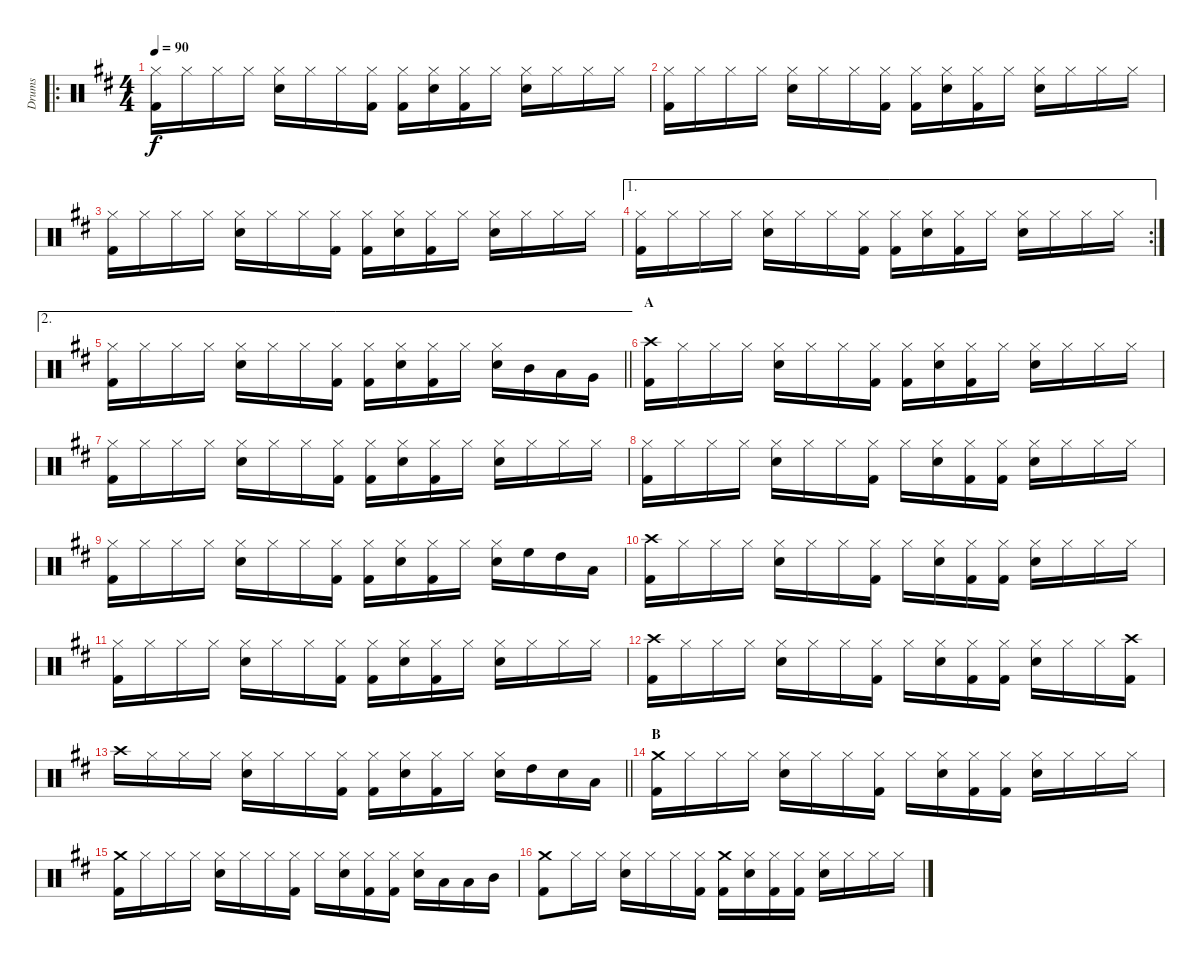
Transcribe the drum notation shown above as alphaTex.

\track ("Drums" "Drums") {instrument percussion}
\staff {score}
\articulation defaults
\ro
\ts (4 4)
\tempo 90
\clef neutral
\ks d
("Hi-Hat (closed)" "Kick (hit) 2").16{dy f} "Hi-Hat (closed)".16 "Hi-Hat (closed)".16 "Hi-Hat (closed)".16 ("Hi-Hat (closed)" "Snare (hit) 2").16 "Hi-Hat (closed)".16 "Hi-Hat (closed)".16 ("Hi-Hat (closed)" "Kick (hit) 2").16 ("Hi-Hat (closed)" "Kick (hit) 2").16 ("Hi-Hat (closed)" "Snare (hit) 2").16 ("Hi-Hat (closed)" "Kick (hit) 2").16 "Hi-Hat (closed)".16 ("Hi-Hat (closed)" "Snare (hit) 2").16 "Hi-Hat (closed)".16 "Hi-Hat (closed)".16 "Hi-Hat (closed)".16 |
("Hi-Hat (closed)" "Kick (hit) 2").16 "Hi-Hat (closed)".16 "Hi-Hat (closed)".16 "Hi-Hat (closed)".16 ("Hi-Hat (closed)" "Snare (hit) 2").16 "Hi-Hat (closed)".16 "Hi-Hat (closed)".16 ("Hi-Hat (closed)" "Kick (hit) 2").16 ("Hi-Hat (closed)" "Kick (hit) 2").16 ("Hi-Hat (closed)" "Snare (hit) 2").16 ("Hi-Hat (closed)" "Kick (hit) 2").16 "Hi-Hat (closed)".16 ("Hi-Hat (closed)" "Snare (hit) 2").16 "Hi-Hat (closed)".16 "Hi-Hat (closed)".16 "Hi-Hat (closed)".16 |
("Hi-Hat (closed)" "Kick (hit) 2").16 "Hi-Hat (closed)".16 "Hi-Hat (closed)".16 "Hi-Hat (closed)".16 ("Hi-Hat (closed)" "Snare (hit) 2").16 "Hi-Hat (closed)".16 "Hi-Hat (closed)".16 ("Hi-Hat (closed)" "Kick (hit) 2").16 ("Hi-Hat (closed)" "Kick (hit) 2").16 ("Hi-Hat (closed)" "Snare (hit) 2").16 ("Hi-Hat (closed)" "Kick (hit) 2").16 "Hi-Hat (closed)".16 ("Hi-Hat (closed)" "Snare (hit) 2").16 "Hi-Hat (closed)".16 "Hi-Hat (closed)".16 "Hi-Hat (closed)".16 |
\ae 1
\rc 2
("Hi-Hat (closed)" "Kick (hit) 2").16 "Hi-Hat (closed)".16 "Hi-Hat (closed)".16 "Hi-Hat (closed)".16 ("Hi-Hat (closed)" "Snare (hit) 2").16 "Hi-Hat (closed)".16 "Hi-Hat (closed)".16 ("Hi-Hat (closed)" "Kick (hit) 2").16 ("Hi-Hat (closed)" "Kick (hit) 2").16 ("Hi-Hat (closed)" "Snare (hit) 2").16 ("Hi-Hat (closed)" "Kick (hit) 2").16 "Hi-Hat (closed)".16 ("Hi-Hat (closed)" "Snare (hit) 2").16 "Hi-Hat (closed)".16 "Hi-Hat (closed)".16 "Hi-Hat (closed)".16 |
\ae 2
\barLineRight lightlight
("Hi-Hat (closed)" "Kick (hit) 2").16 "Hi-Hat (closed)".16 "Hi-Hat (closed)".16 "Hi-Hat (closed)".16 ("Hi-Hat (closed)" "Snare (hit) 2").16 "Hi-Hat (closed)".16 "Hi-Hat (closed)".16 ("Hi-Hat (closed)" "Kick (hit) 2").16 ("Hi-Hat (closed)" "Kick (hit) 2").16 ("Hi-Hat (closed)" "Snare (hit) 2").16 ("Hi-Hat (closed)" "Kick (hit) 2").16 "Hi-Hat (closed)".16 ("Hi-Hat (closed)" "Snare (hit) 2").16 "Mid Tom (hit)".16 "Low Tom (hit)".16 "Very Low Tom (hit)".16 |
\section ("" "A")
("Crash high (hit)" "Kick (hit) 2").16 "Hi-Hat (closed)".16 "Hi-Hat (closed)".16 "Hi-Hat (closed)".16 ("Hi-Hat (closed)" "Snare (hit) 2").16 "Hi-Hat (closed)".16 "Hi-Hat (closed)".16 ("Hi-Hat (closed)" "Kick (hit) 2").16 ("Hi-Hat (closed)" "Kick (hit) 2").16 ("Hi-Hat (closed)" "Snare (hit) 2").16 ("Hi-Hat (closed)" "Kick (hit) 2").16 "Hi-Hat (closed)".16 ("Hi-Hat (closed)" "Snare (hit) 2").16 "Hi-Hat (closed)".16 "Hi-Hat (closed)".16 "Hi-Hat (closed)".16 |
("Hi-Hat (closed)" "Kick (hit) 2").16 "Hi-Hat (closed)".16 "Hi-Hat (closed)".16 "Hi-Hat (closed)".16 ("Hi-Hat (closed)" "Snare (hit) 2").16 "Hi-Hat (closed)".16 "Hi-Hat (closed)".16 ("Hi-Hat (closed)" "Kick (hit) 2").16 ("Hi-Hat (closed)" "Kick (hit) 2").16 ("Hi-Hat (closed)" "Snare (hit) 2").16 ("Hi-Hat (closed)" "Kick (hit) 2").16 "Hi-Hat (closed)".16 ("Hi-Hat (closed)" "Snare (hit) 2").16 "Hi-Hat (closed)".16 "Hi-Hat (closed)".16 "Hi-Hat (closed)".16 |
("Hi-Hat (closed)" "Kick (hit) 2").16 "Hi-Hat (closed)".16 "Hi-Hat (closed)".16 "Hi-Hat (closed)".16 ("Hi-Hat (closed)" "Snare (hit) 2").16 "Hi-Hat (closed)".16 "Hi-Hat (closed)".16 ("Hi-Hat (closed)" "Kick (hit) 2").16 "Hi-Hat (closed)".16 ("Hi-Hat (closed)" "Snare (hit) 2").16 ("Hi-Hat (closed)" "Kick (hit) 2").16 ("Hi-Hat (closed)" "Kick (hit) 2").16 ("Hi-Hat (closed)" "Snare (hit) 2").16 "Hi-Hat (closed)".16 "Hi-Hat (closed)".16 "Hi-Hat (closed)".16 |
("Hi-Hat (closed)" "Kick (hit) 2").16 "Hi-Hat (closed)".16 "Hi-Hat (closed)".16 "Hi-Hat (closed)".16 ("Hi-Hat (closed)" "Snare (hit) 2").16 "Hi-Hat (closed)".16 "Hi-Hat (closed)".16 ("Hi-Hat (closed)" "Kick (hit) 2").16 ("Hi-Hat (closed)" "Kick (hit) 2").16 ("Hi-Hat (closed)" "Snare (hit) 2").16 ("Hi-Hat (closed)" "Kick (hit) 2").16 "Hi-Hat (closed)".16 ("Hi-Hat (closed)" "Snare (hit) 2").16 "High Floor Tom (hit)".16 "High Tom (hit)".16 "Low Tom (hit)".16 |
("Crash high (hit)" "Kick (hit) 2").16 "Hi-Hat (closed)".16 "Hi-Hat (closed)".16 "Hi-Hat (closed)".16 ("Hi-Hat (closed)" "Snare (hit) 2").16 "Hi-Hat (closed)".16 "Hi-Hat (closed)".16 ("Hi-Hat (closed)" "Kick (hit) 2").16 "Hi-Hat (closed)".16 ("Hi-Hat (closed)" "Snare (hit) 2").16 ("Hi-Hat (closed)" "Kick (hit) 2").16 ("Hi-Hat (closed)" "Kick (hit) 2").16 ("Hi-Hat (closed)" "Snare (hit) 2").16 "Hi-Hat (closed)".16 "Hi-Hat (closed)".16 "Hi-Hat (closed)".16 |
("Hi-Hat (closed)" "Kick (hit) 2").16 "Hi-Hat (closed)".16 "Hi-Hat (closed)".16 "Hi-Hat (closed)".16 ("Hi-Hat (closed)" "Snare (hit) 2").16 "Hi-Hat (closed)".16 "Hi-Hat (closed)".16 ("Hi-Hat (closed)" "Kick (hit) 2").16 ("Hi-Hat (closed)" "Kick (hit) 2").16 ("Hi-Hat (closed)" "Snare (hit) 2").16 ("Hi-Hat (closed)" "Kick (hit) 2").16 "Hi-Hat (closed)".16 ("Hi-Hat (closed)" "Snare (hit) 2").16 "Hi-Hat (closed)".16 "Hi-Hat (closed)".16 "Hi-Hat (closed)".16 |
("Crash high (hit)" "Kick (hit) 2").16 "Hi-Hat (closed)".16 "Hi-Hat (closed)".16 "Hi-Hat (closed)".16 ("Hi-Hat (closed)" "Snare (hit) 2").16 "Hi-Hat (closed)".16 "Hi-Hat (closed)".16 ("Hi-Hat (closed)" "Kick (hit) 2").16 "Hi-Hat (closed)".16 ("Hi-Hat (closed)" "Snare (hit) 2").16 ("Hi-Hat (closed)" "Kick (hit) 2").16 ("Hi-Hat (closed)" "Kick (hit) 2").16 ("Hi-Hat (closed)" "Snare (hit) 2").16 "Hi-Hat (closed)".16 "Hi-Hat (closed)".16 ("Crash high (hit)" "Kick (hit) 2").16 |
\barLineRight lightlight "Crash high (hit)".16 "Hi-Hat (closed)".16 "Hi-Hat (closed)".16 "Hi-Hat (closed)".16
("Hi-Hat (closed)" "Snare (hit) 2").16 "Hi-Hat (closed)".16 "Hi-Hat (closed)".16 ("Hi-Hat (closed)" "Kick (hit) 2").16 ("Hi-Hat (closed)" "Kick (hit) 2").16 ("Hi-Hat (closed)" "Snare (hit) 2").16 ("Hi-Hat (closed)" "Kick (hit) 2").16 "Hi-Hat (closed)".16 ("Hi-Hat (closed)" "Snare (hit) 2").16 "High Tom (hit)".16 "Snare (hit) 2".16 "Low Floor Tom (hit)".16 |
\section ("" "B")
("Crash medium (hit)" "Kick (hit) 2").16 "Hi-Hat (closed)".16 "Hi-Hat (closed)".16 "Hi-Hat (closed)".16 ("Hi-Hat (closed)" "Snare (hit) 2").16 "Hi-Hat (closed)".16 "Hi-Hat (closed)".16 ("Hi-Hat (closed)" "Kick (hit) 2").16 "Hi-Hat (closed)".16 ("Hi-Hat (closed)" "Snare (hit) 2").16 ("Hi-Hat (closed)" "Kick (hit) 2").16 ("Hi-Hat (closed)" "Kick (hit) 2").16 ("Hi-Hat (closed)" "Snare (hit) 2").16 "Hi-Hat (closed)".16 "Hi-Hat (closed)".16 "Hi-Hat (closed)".16 |
("Crash medium (hit)" "Kick (hit) 2").16 "Hi-Hat (closed)".16 "Hi-Hat (closed)".16 "Hi-Hat (closed)".16 ("Hi-Hat (closed)" "Snare (hit) 2").16 "Hi-Hat (closed)".16 "Hi-Hat (closed)".16 ("Hi-Hat (closed)" "Kick (hit) 2").16 "Hi-Hat (closed)".16 ("Hi-Hat (closed)" "Snare (hit) 2").16 ("Hi-Hat (closed)" "Kick (hit) 2").16 ("Hi-Hat (closed)" "Kick (hit) 2").16 ("Hi-Hat (closed)" "Snare (hit) 2").16 "Low Tom (hit)".16 "Low Floor Tom (hit)".16 "Mid Tom (hit)".16 |
("Crash medium (hit)" "Kick (hit) 2").8 "Hi-Hat (closed)".16 "Hi-Hat (closed)".16 ("Hi-Hat (closed)" "Snare (hit) 2").16 "Hi-Hat (closed)".16 "Hi-Hat (closed)".16 ("Hi-Hat (closed)" "Kick (hit) 2").16 ("Crash medium (hit)" "Kick (hit) 2").16 ("Hi-Hat (closed)" "Snare (hit) 2").16 ("Hi-Hat (closed)" "Kick (hit) 2").16 ("Hi-Hat (closed)" "Kick (hit) 2").16 ("Hi-Hat (closed)" "Snare (hit) 2").16 "Hi-Hat (closed)".16 "Hi-Hat (closed)".16 "Hi-Hat (closed)".16
